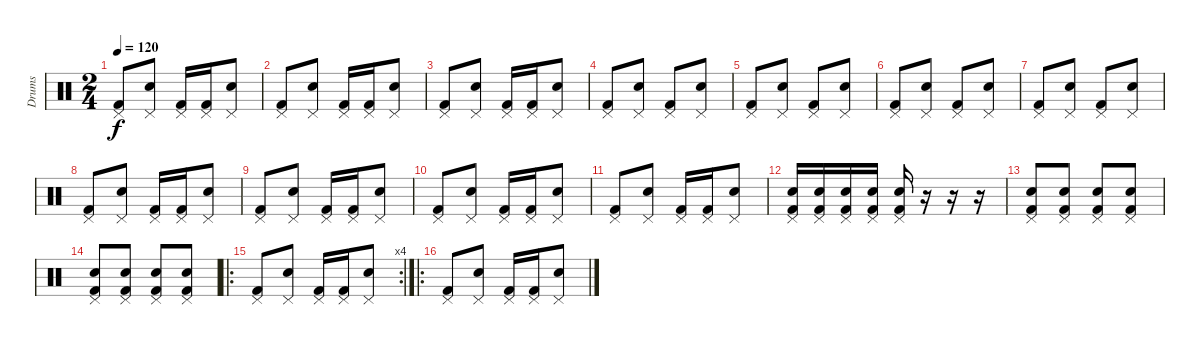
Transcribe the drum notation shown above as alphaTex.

\track ("Drums" "Drums") {instrument percussion}
\staff {score}
\articulation defaults
\ts (2 4)
\tempo 120
\clef neutral
\ks c
("Kick (hit) 2" "Pedal Hi-Hat (hit)").8{dy f} ("Electric Snare (hit)" "Pedal Hi-Hat (hit)").8 ("Kick (hit) 2" "Pedal Hi-Hat (hit)").16 ("Kick (hit) 2" "Pedal Hi-Hat (hit)").16 ("Electric Snare (hit)" "Pedal Hi-Hat (hit)").8 |
("Kick (hit) 2" "Pedal Hi-Hat (hit)").8 ("Electric Snare (hit)" "Pedal Hi-Hat (hit)").8 ("Kick (hit) 2" "Pedal Hi-Hat (hit)").16 ("Kick (hit) 2" "Pedal Hi-Hat (hit)").16 ("Electric Snare (hit)" "Pedal Hi-Hat (hit)").8 |
("Kick (hit) 2" "Pedal Hi-Hat (hit)").8 ("Electric Snare (hit)" "Pedal Hi-Hat (hit)").8 ("Kick (hit) 2" "Pedal Hi-Hat (hit)").16 ("Kick (hit) 2" "Pedal Hi-Hat (hit)").16 ("Electric Snare (hit)" "Pedal Hi-Hat (hit)").8 |
("Kick (hit) 2" "Pedal Hi-Hat (hit)").8 ("Electric Snare (hit)" "Pedal Hi-Hat (hit)").8 ("Kick (hit) 2" "Pedal Hi-Hat (hit)").8 ("Electric Snare (hit)" "Pedal Hi-Hat (hit)").8 |
("Kick (hit) 2" "Pedal Hi-Hat (hit)").8 ("Electric Snare (hit)" "Pedal Hi-Hat (hit)").8 ("Kick (hit) 2" "Pedal Hi-Hat (hit)").8 ("Electric Snare (hit)" "Pedal Hi-Hat (hit)").8 |
("Kick (hit) 2" "Pedal Hi-Hat (hit)").8 ("Electric Snare (hit)" "Pedal Hi-Hat (hit)").8 ("Kick (hit) 2" "Pedal Hi-Hat (hit)").8 ("Electric Snare (hit)" "Pedal Hi-Hat (hit)").8 |
("Kick (hit) 2" "Pedal Hi-Hat (hit)").8 ("Electric Snare (hit)" "Pedal Hi-Hat (hit)").8 ("Kick (hit) 2" "Pedal Hi-Hat (hit)").8 ("Electric Snare (hit)" "Pedal Hi-Hat (hit)").8 |
("Kick (hit) 2" "Pedal Hi-Hat (hit)").8 ("Electric Snare (hit)" "Pedal Hi-Hat (hit)").8 ("Kick (hit) 2" "Pedal Hi-Hat (hit)").16 ("Kick (hit) 2" "Pedal Hi-Hat (hit)").16 ("Electric Snare (hit)" "Pedal Hi-Hat (hit)").8 |
("Kick (hit) 2" "Pedal Hi-Hat (hit)").8 ("Electric Snare (hit)" "Pedal Hi-Hat (hit)").8 ("Kick (hit) 2" "Pedal Hi-Hat (hit)").16 ("Kick (hit) 2" "Pedal Hi-Hat (hit)").16 ("Electric Snare (hit)" "Pedal Hi-Hat (hit)").8 |
("Kick (hit) 2" "Pedal Hi-Hat (hit)").8 ("Electric Snare (hit)" "Pedal Hi-Hat (hit)").8 ("Kick (hit) 2" "Pedal Hi-Hat (hit)").16 ("Kick (hit) 2" "Pedal Hi-Hat (hit)").16 ("Electric Snare (hit)" "Pedal Hi-Hat (hit)").8 |
("Kick (hit) 2" "Pedal Hi-Hat (hit)").8 ("Electric Snare (hit)" "Pedal Hi-Hat (hit)").8 ("Kick (hit) 2" "Pedal Hi-Hat (hit)").16 ("Kick (hit) 2" "Pedal Hi-Hat (hit)").16 ("Electric Snare (hit)" "Pedal Hi-Hat (hit)").8 |
("Electric Snare (hit)" "Kick (hit) 2" "Pedal Hi-Hat (hit)").16 ("Electric Snare (hit)" "Kick (hit) 2" "Pedal Hi-Hat (hit)").16 ("Electric Snare (hit)" "Kick (hit) 2" "Pedal Hi-Hat (hit)").16 ("Electric Snare (hit)" "Kick (hit) 2" "Pedal Hi-Hat (hit)").16 ("Electric Snare (hit)" "Kick (hit) 2" "Pedal Hi-Hat (hit)").16 r.16 r.16 r.16 |
("Electric Snare (hit)" "Kick (hit) 2" "Pedal Hi-Hat (hit)").8 ("Electric Snare (hit)" "Kick (hit) 2" "Pedal Hi-Hat (hit)").8 ("Electric Snare (hit)" "Kick (hit) 2" "Pedal Hi-Hat (hit)").8 ("Electric Snare (hit)" "Kick (hit) 2" "Pedal Hi-Hat (hit)").8 |
("Electric Snare (hit)" "Kick (hit) 2" "Pedal Hi-Hat (hit)").8 ("Electric Snare (hit)" "Kick (hit) 2" "Pedal Hi-Hat (hit)").8 ("Electric Snare (hit)" "Kick (hit) 2" "Pedal Hi-Hat (hit)").8 ("Electric Snare (hit)" "Kick (hit) 2" "Pedal Hi-Hat (hit)").8 |
\ro
\rc 4
("Kick (hit) 2" "Pedal Hi-Hat (hit)").8 ("Electric Snare (hit)" "Pedal Hi-Hat (hit)").8 ("Kick (hit) 2" "Pedal Hi-Hat (hit)").16 ("Kick (hit) 2" "Pedal Hi-Hat (hit)").16 ("Electric Snare (hit)" "Pedal Hi-Hat (hit)").8 |
\ro
("Kick (hit) 2" "Pedal Hi-Hat (hit)").8 ("Electric Snare (hit)" "Pedal Hi-Hat (hit)").8 ("Kick (hit) 2" "Pedal Hi-Hat (hit)").16 ("Kick (hit) 2" "Pedal Hi-Hat (hit)").16 ("Electric Snare (hit)" "Pedal Hi-Hat (hit)").8
